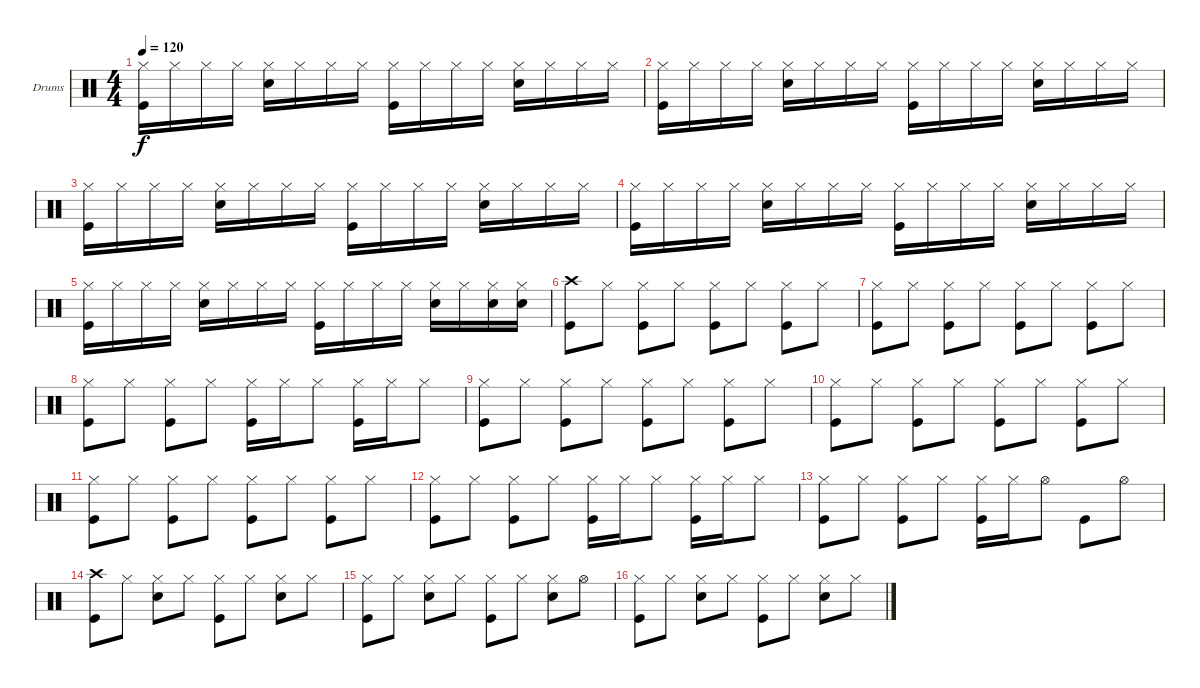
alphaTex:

\bracketExtendMode groupsimilarinstruments
\firstSystemTrackNameOrientation horizontal
\otherSystemsTrackNameOrientation horizontal
\track ("Drumkit" "Drums") {instrument percussion}
\staff {score}
\articulation defaults
\ts (4 4)
\tempo 120
\clef neutral
\ks c
("Hi-Hat (closed)" "Kick (hit)").16{dy f} "Hi-Hat (closed)".16 "Hi-Hat (closed)".16 "Hi-Hat (closed)".16 ("Hi-Hat (closed)" "Snare (hit) 2").16 "Hi-Hat (closed)".16 "Hi-Hat (closed)".16 "Hi-Hat (closed)".16 ("Hi-Hat (closed)" "Kick (hit)").16 "Hi-Hat (closed)".16 "Hi-Hat (closed)".16 "Hi-Hat (closed)".16 ("Hi-Hat (closed)" "Snare (hit) 2").16 "Hi-Hat (closed)".16 "Hi-Hat (closed)".16 "Hi-Hat (closed)".16 |
("Hi-Hat (closed)" "Kick (hit)").16 "Hi-Hat (closed)".16 "Hi-Hat (closed)".16 "Hi-Hat (closed)".16 ("Hi-Hat (closed)" "Snare (hit) 2").16 "Hi-Hat (closed)".16 "Hi-Hat (closed)".16 "Hi-Hat (closed)".16 ("Hi-Hat (closed)" "Kick (hit)").16 "Hi-Hat (closed)".16 "Hi-Hat (closed)".16 "Hi-Hat (closed)".16 ("Hi-Hat (closed)" "Snare (hit) 2").16 "Hi-Hat (closed)".16 "Hi-Hat (closed)".16 "Hi-Hat (closed)".16 |
("Hi-Hat (closed)" "Kick (hit)").16 "Hi-Hat (closed)".16 "Hi-Hat (closed)".16 "Hi-Hat (closed)".16 ("Hi-Hat (closed)" "Snare (hit) 2").16 "Hi-Hat (closed)".16 "Hi-Hat (closed)".16 "Hi-Hat (closed)".16 ("Hi-Hat (closed)" "Kick (hit)").16 "Hi-Hat (closed)".16 "Hi-Hat (closed)".16 "Hi-Hat (closed)".16 ("Hi-Hat (closed)" "Snare (hit) 2").16 "Hi-Hat (closed)".16 "Hi-Hat (closed)".16 "Hi-Hat (closed)".16 |
("Hi-Hat (closed)" "Kick (hit)").16 "Hi-Hat (closed)".16 "Hi-Hat (closed)".16 "Hi-Hat (closed)".16 ("Hi-Hat (closed)" "Snare (hit) 2").16 "Hi-Hat (closed)".16 "Hi-Hat (closed)".16 "Hi-Hat (closed)".16 ("Hi-Hat (closed)" "Kick (hit)").16 "Hi-Hat (closed)".16 "Hi-Hat (closed)".16 "Hi-Hat (closed)".16 ("Hi-Hat (closed)" "Snare (hit) 2").16 "Hi-Hat (closed)".16 "Hi-Hat (closed)".16 "Hi-Hat (closed)".16 |
("Hi-Hat (closed)" "Kick (hit)").16 "Hi-Hat (closed)".16 "Hi-Hat (closed)".16 "Hi-Hat (closed)".16 ("Hi-Hat (closed)" "Snare (hit) 2").16 "Hi-Hat (closed)".16 "Hi-Hat (closed)".16 "Hi-Hat (closed)".16 ("Hi-Hat (closed)" "Kick (hit)").16 "Hi-Hat (closed)".16 "Hi-Hat (closed)".16 "Hi-Hat (closed)".16 ("Hi-Hat (closed)" "Snare (hit) 2").16 "Hi-Hat (closed)".16 ("Hi-Hat (closed)" "Snare (hit) 2").16 ("Hi-Hat (closed)" "Snare (hit) 2").16 |
("Kick (hit)" "Crash high (hit)").8 "Hi-Hat (closed)".8 ("Kick (hit)" "Hi-Hat (closed)").8 "Hi-Hat (closed)".8 ("Hi-Hat (closed)" "Kick (hit)").8 "Hi-Hat (closed)".8 ("Hi-Hat (closed)" "Kick (hit)").8 "Hi-Hat (closed)".8 |
("Kick (hit)" "Hi-Hat (closed)").8 "Hi-Hat (closed)".8 ("Kick (hit)" "Hi-Hat (closed)").8 "Hi-Hat (closed)".8 ("Hi-Hat (closed)" "Kick (hit)").8 "Hi-Hat (closed)".8 ("Hi-Hat (closed)" "Kick (hit)").8 "Hi-Hat (closed)".8 |
("Kick (hit)" "Hi-Hat (closed)").8 "Hi-Hat (closed)".8 ("Kick (hit)" "Hi-Hat (closed)").8 "Hi-Hat (closed)".8 ("Hi-Hat (closed)" "Kick (hit)").16 "Hi-Hat (closed)".16 "Hi-Hat (closed)".8 ("Hi-Hat (closed)" "Kick (hit)").16 "Hi-Hat (closed)".16 "Hi-Hat (closed)".8 |
("Kick (hit)" "Hi-Hat (closed)").8 "Hi-Hat (closed)".8 ("Kick (hit)" "Hi-Hat (closed)").8 "Hi-Hat (closed)".8 ("Hi-Hat (closed)" "Kick (hit)").8 "Hi-Hat (closed)".8 ("Hi-Hat (closed)" "Kick (hit)").8 "Hi-Hat (closed)".8 |
("Kick (hit)" "Hi-Hat (closed)").8 "Hi-Hat (closed)".8 ("Kick (hit)" "Hi-Hat (closed)").8 "Hi-Hat (closed)".8 ("Hi-Hat (closed)" "Kick (hit)").8 "Hi-Hat (closed)".8 ("Hi-Hat (closed)" "Kick (hit)").8 "Hi-Hat (closed)".8 |
("Kick (hit)" "Hi-Hat (closed)").8 "Hi-Hat (closed)".8 ("Kick (hit)" "Hi-Hat (closed)").8 "Hi-Hat (closed)".8 ("Hi-Hat (closed)" "Kick (hit)").8 "Hi-Hat (closed)".8 ("Hi-Hat (closed)" "Kick (hit)").8 "Hi-Hat (closed)".8 |
("Kick (hit)" "Hi-Hat (closed)").8 "Hi-Hat (closed)".8 ("Kick (hit)" "Hi-Hat (closed)").8 "Hi-Hat (closed)".8 ("Hi-Hat (closed)" "Kick (hit)").16 "Hi-Hat (closed)".16 "Hi-Hat (closed)".8 ("Hi-Hat (closed)" "Kick (hit)").16 "Hi-Hat (closed)".16 "Hi-Hat (closed)".8 |
("Kick (hit)" "Hi-Hat (closed)").8 "Hi-Hat (closed)".8 ("Kick (hit)" "Hi-Hat (closed)").8 "Hi-Hat (closed)".8 ("Hi-Hat (closed)" "Kick (hit)").16 "Hi-Hat (closed)".16 "Hi-Hat (open)".8 "Kick (hit)".8 "Hi-Hat (open)".8 |
("Kick (hit)" "Crash high (hit)").8 "Hi-Hat (closed)".8 ("Snare (hit) 2" "Hi-Hat (closed)").8 "Hi-Hat (closed)".8 ("Kick (hit)" "Hi-Hat (closed)").8 "Hi-Hat (closed)".8 ("Snare (hit) 2" "Hi-Hat (closed)").8 "Hi-Hat (closed)".8 |
("Kick (hit)" "Hi-Hat (closed)").8 "Hi-Hat (closed)".8 ("Snare (hit) 2" "Hi-Hat (closed)").8 "Hi-Hat (closed)".8 ("Kick (hit)" "Hi-Hat (closed)").8 "Hi-Hat (closed)".8 ("Snare (hit) 2" "Hi-Hat (closed)").8 "Hi-Hat (open)".8 |
("Kick (hit)" "Hi-Hat (closed)").8 "Hi-Hat (closed)".8 ("Snare (hit) 2" "Hi-Hat (closed)").8 "Hi-Hat (closed)".8 ("Kick (hit)" "Hi-Hat (closed)").8 "Hi-Hat (closed)".8 ("Snare (hit) 2" "Hi-Hat (closed)").8 "Hi-Hat (closed)".8
